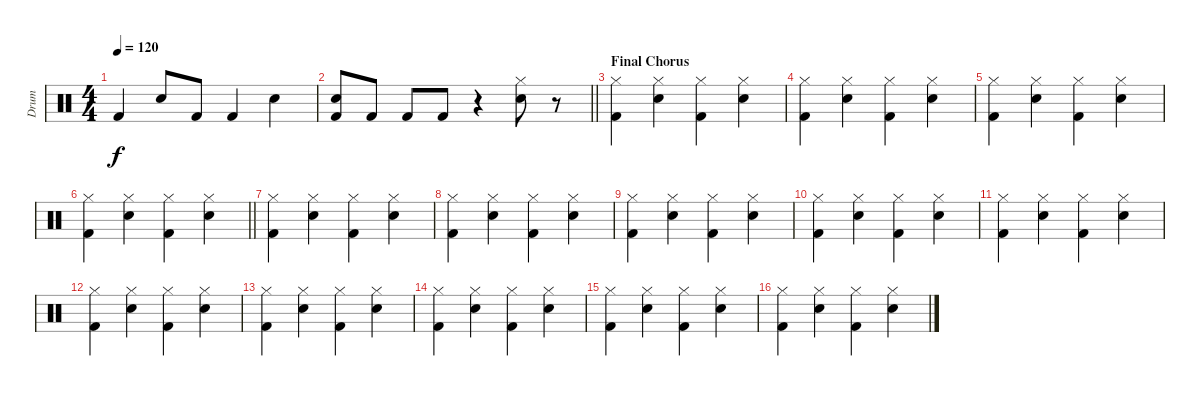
\track ("Drum" "Drum") {instrument percussion}
\staff {score}
\articulation defaults
\ts (4 4)
\tempo 120
\clef neutral
\ks c "Kick (hit) 2".4{dy f} "Electric Snare (hit)".8 "Kick (hit) 2".8 "Kick (hit) 2".4 "Electric Snare (hit)".4
|
\barLineRight lightlight
("Electric Snare (hit)" "Kick (hit) 2").8 "Kick (hit) 2".8 "Kick (hit) 2".8 "Kick (hit) 2".8 r.4 ("Hi-Hat (closed)" "Electric Snare (hit)").8 r.8 |
\section ("" "Final Chorus")
("Hi-Hat (closed)" "Kick (hit) 2").4 ("Hi-Hat (closed)" "Electric Snare (hit)").4 ("Hi-Hat (closed)" "Kick (hit) 2").4 ("Hi-Hat (closed)" "Electric Snare (hit)").4 |
("Hi-Hat (closed)" "Kick (hit) 2").4 ("Hi-Hat (closed)" "Electric Snare (hit)").4 ("Hi-Hat (closed)" "Kick (hit) 2").4 ("Hi-Hat (closed)" "Electric Snare (hit)").4 |
("Hi-Hat (closed)" "Kick (hit) 2").4 ("Hi-Hat (closed)" "Electric Snare (hit)").4 ("Hi-Hat (closed)" "Kick (hit) 2").4 ("Hi-Hat (closed)" "Electric Snare (hit)").4 |
\barLineRight lightlight
("Hi-Hat (closed)" "Kick (hit) 2").4 ("Hi-Hat (closed)" "Electric Snare (hit)").4 ("Hi-Hat (closed)" "Kick (hit) 2").4 ("Hi-Hat (closed)" "Electric Snare (hit)").4 |
("Hi-Hat (closed)" "Kick (hit) 2").4 ("Hi-Hat (closed)" "Electric Snare (hit)").4 ("Hi-Hat (closed)" "Kick (hit) 2").4 ("Hi-Hat (closed)" "Electric Snare (hit)").4 |
("Hi-Hat (closed)" "Kick (hit) 2").4 ("Hi-Hat (closed)" "Electric Snare (hit)").4 ("Hi-Hat (closed)" "Kick (hit) 2").4 ("Hi-Hat (closed)" "Electric Snare (hit)").4 |
("Hi-Hat (closed)" "Kick (hit) 2").4 ("Hi-Hat (closed)" "Electric Snare (hit)").4 ("Hi-Hat (closed)" "Kick (hit) 2").4 ("Hi-Hat (closed)" "Electric Snare (hit)").4 |
("Hi-Hat (closed)" "Kick (hit) 2").4 ("Hi-Hat (closed)" "Electric Snare (hit)").4 ("Hi-Hat (closed)" "Kick (hit) 2").4 ("Hi-Hat (closed)" "Electric Snare (hit)").4 |
("Hi-Hat (closed)" "Kick (hit) 2").4 ("Hi-Hat (closed)" "Electric Snare (hit)").4 ("Hi-Hat (closed)" "Kick (hit) 2").4 ("Hi-Hat (closed)" "Electric Snare (hit)").4 |
("Hi-Hat (closed)" "Kick (hit) 2").4 ("Hi-Hat (closed)" "Electric Snare (hit)").4 ("Hi-Hat (closed)" "Kick (hit) 2").4 ("Hi-Hat (closed)" "Electric Snare (hit)").4 |
("Hi-Hat (closed)" "Kick (hit) 2").4 ("Hi-Hat (closed)" "Electric Snare (hit)").4 ("Hi-Hat (closed)" "Kick (hit) 2").4 ("Hi-Hat (closed)" "Electric Snare (hit)").4 |
("Hi-Hat (closed)" "Kick (hit) 2").4 ("Hi-Hat (closed)" "Electric Snare (hit)").4 ("Hi-Hat (closed)" "Kick (hit) 2").4 ("Hi-Hat (closed)" "Electric Snare (hit)").4 |
("Hi-Hat (closed)" "Kick (hit) 2").4 ("Hi-Hat (closed)" "Electric Snare (hit)").4 ("Hi-Hat (closed)" "Kick (hit) 2").4 ("Hi-Hat (closed)" "Electric Snare (hit)").4 |
("Hi-Hat (closed)" "Kick (hit) 2").4 ("Hi-Hat (closed)" "Electric Snare (hit)").4 ("Hi-Hat (closed)" "Kick (hit) 2").4 ("Hi-Hat (closed)" "Electric Snare (hit)").4
